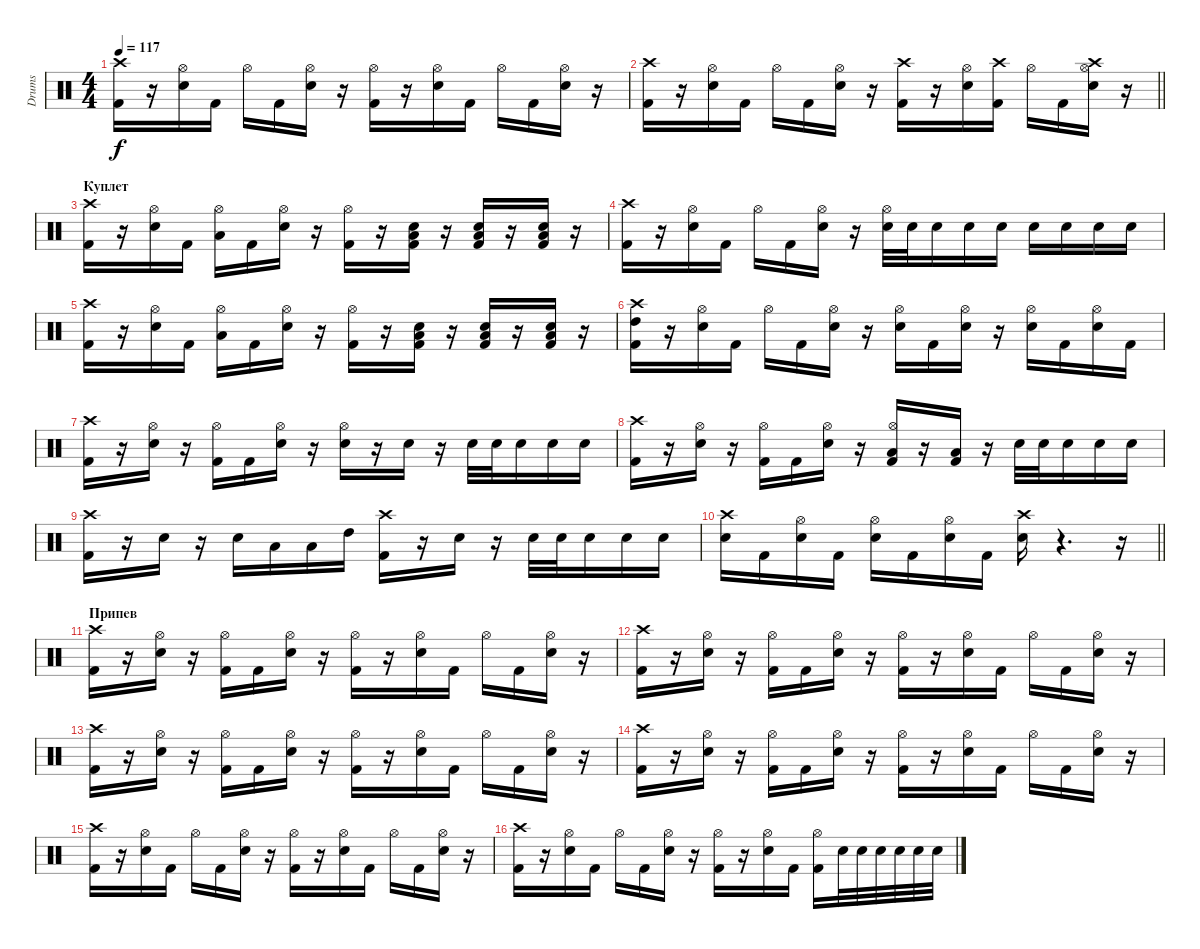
\track ("Drums" "Drums") {instrument percussion}
\staff {score}
\articulation defaults
\ts (4 4)
\tempo 117
\clef neutral
\ks c
("Kick (hit) 2" "Crash high (hit)").16{dy f} r.16 ("Snare (hit) 2" "Hi-Hat (open)").16 "Kick (hit) 2".16 "Hi-Hat (open)".16 "Kick (hit) 2".16 ("Snare (hit) 2" "Hi-Hat (open)").16 r.16 ("Kick (hit) 2" "Hi-Hat (open)").16 r.16 ("Snare (hit) 2" "Hi-Hat (open)").16 "Kick (hit) 2".16 "Hi-Hat (open)".16 "Kick (hit) 2".16 ("Snare (hit) 2" "Hi-Hat (open)").16 r.16 |
\barLineRight lightlight
("Kick (hit) 2" "Crash high (hit)").16 r.16 ("Snare (hit) 2" "Hi-Hat (open)").16 "Kick (hit) 2".16 "Hi-Hat (open)".16 "Kick (hit) 2".16 ("Snare (hit) 2" "Hi-Hat (open)").16 r.16 ("Kick (hit) 2" "Crash high (hit)").16 r.16 ("Snare (hit) 2" "Hi-Hat (open)").16 ("Kick (hit) 2" "Crash high (hit)").16 "Hi-Hat (open)".16 "Kick (hit) 2".16 ("Snare (hit) 2" "Hi-Hat (open)" "Crash high (hit)").16 r.16 |
\section ("" "Куплет")
("Kick (hit) 2" "Crash high (hit)").16 r.16 ("Snare (hit) 2" "Hi-Hat (open)").16 "Kick (hit) 2".16 ("Low Floor Tom (hit)" "Hi-Hat (open)").16 "Kick (hit) 2".16 ("Snare (hit) 2" "Hi-Hat (open)").16 r.16 ("Kick (hit) 2" "Hi-Hat (open)").16 r.16 ("Kick (hit) 2" "Snare (hit) 2" "Low Floor Tom (hit)").16 r.16 ("Kick (hit) 2" "Snare (hit) 2" "Low Floor Tom (hit)").16 r.16 ("Kick (hit) 2" "Snare (hit) 2" "Low Floor Tom (hit)").16 r.16 |
("Crash high (hit)" "Kick (hit) 2").16 r.16 ("Hi-Hat (open)" "Snare (hit) 2").16 "Kick (hit) 2".16 "Hi-Hat (open)".16 "Kick (hit) 2".16 ("Hi-Hat (open)" "Snare (hit) 2").16 r.16 ("Snare (hit) 2" "Hi-Hat (open)").32 "Snare (hit) 2".32 "Snare (hit) 2".16 "Snare (hit) 2".16 "Snare (hit) 2".16 "Snare (hit) 2".16 "Snare (hit) 2".16 "Snare (hit) 2".16 "Snare (hit) 2".16 |
("Kick (hit) 2" "Crash high (hit)").16 r.16 ("Hi-Hat (open)" "Snare (hit) 2").16 "Kick (hit) 2".16 ("Hi-Hat (open)" "Low Floor Tom (hit)").16 "Kick (hit) 2".16 ("Hi-Hat (open)" "Snare (hit) 2").16 r.16 ("Hi-Hat (open)" "Kick (hit) 2").16 r.16 ("Kick (hit) 2" "Snare (hit) 2" "Low Floor Tom (hit)").16 r.16 ("Kick (hit) 2" "Snare (hit) 2" "Low Floor Tom (hit)").16 r.16 ("Kick (hit) 2" "Snare (hit) 2" "Low Floor Tom (hit)").16 r.16 |
("Kick (hit) 2" "High Tom (hit)" "Crash high (hit)").16 r.16 ("Snare (hit) 2" "Hi-Hat (open)").16 "Kick (hit) 2".16 "Hi-Hat (open)".16 "Kick (hit) 2".16 ("Snare (hit) 2" "Hi-Hat (open)").16 r.16 ("Snare (hit) 2" "Hi-Hat (open)").16 "Kick (hit) 2".16 ("Hi-Hat (open)" "Snare (hit) 2").16 r.16 ("Hi-Hat (open)" "Snare (hit) 2").16 "Kick (hit) 2".16 ("Hi-Hat (open)" "Snare (hit) 2").16 "Kick (hit) 2".16 |
("Crash high (hit)" "Kick (hit) 2").16 r.16 ("Snare (hit) 2" "Hi-Hat (open)").16 r.16 ("Kick (hit) 2" "Hi-Hat (open)").16 "Kick (hit) 2".16 ("Snare (hit) 2" "Hi-Hat (open)").16 r.16 ("Snare (hit) 2" "Hi-Hat (open)").16 r.16 "Snare (hit) 2".16 r.16 "Snare (hit) 2".32 "Snare (hit) 2".32 "Snare (hit) 2".16 "Snare (hit) 2".16 "Snare (hit) 2".16 |
("Crash high (hit)" "Kick (hit) 2").16 r.16 ("Hi-Hat (open)" "Snare (hit) 2").16 r.16 ("Hi-Hat (open)" "Kick (hit) 2").16 "Kick (hit) 2".16 ("Hi-Hat (open)" "Snare (hit) 2").16 r.16 ("Hi-Hat (open)" "Kick (hit) 2" "Low Floor Tom (hit)").16 r.16 ("Kick (hit) 2" "Low Floor Tom (hit)").16 r.16 "Snare (hit) 2".32 "Snare (hit) 2".32 "Snare (hit) 2".16 "Snare (hit) 2".16 "Snare (hit) 2".16 |
("Kick (hit) 2" "Crash high (hit)").16 r.16 "Snare (hit) 2".16 r.16 "Snare (hit) 2".16 "Low Floor Tom (hit)".16 "Low Tom (hit)".16 "High Tom (hit)".16 ("Kick (hit) 2" "Crash high (hit)").16 r.16 "Snare (hit) 2".16 r.16 "Snare (hit) 2".32 "Snare (hit) 2".32 "Snare (hit) 2".16 "Snare (hit) 2".16 "Snare (hit) 2".16 |
\barLineRight lightlight
("Snare (hit) 2" "Crash high (hit)").16 "Kick (hit) 2".16 ("Snare (hit) 2" "Hi-Hat (open)").16 "Kick (hit) 2".16 ("Snare (hit) 2" "Hi-Hat (open)").16 "Kick (hit) 2".16 ("Snare (hit) 2" "Hi-Hat (open)").16 "Kick (hit) 2".16 ("Snare (hit) 2" "Crash high (hit)").16 r.4{d} r.16 |
\section ("" "Припев")
("Kick (hit) 2" "Crash high (hit)").16 r.16 ("Snare (hit) 2" "Hi-Hat (open)").16 r.16 ("Kick (hit) 2" "Hi-Hat (open)").16 "Kick (hit) 2".16 ("Snare (hit) 2" "Hi-Hat (open)").16 r.16 ("Kick (hit) 2" "Hi-Hat (open)").16 r.16 ("Snare (hit) 2" "Hi-Hat (open)").16 "Kick (hit) 2".16 "Hi-Hat (open)".16 "Kick (hit) 2".16 ("Snare (hit) 2" "Hi-Hat (open)").16 r.16 |
("Kick (hit) 2" "Crash high (hit)").16 r.16 ("Snare (hit) 2" "Hi-Hat (open)").16 r.16 ("Kick (hit) 2" "Hi-Hat (open)").16 "Kick (hit) 2".16 ("Snare (hit) 2" "Hi-Hat (open)").16 r.16 ("Kick (hit) 2" "Hi-Hat (open)").16 r.16 ("Snare (hit) 2" "Hi-Hat (open)").16 "Kick (hit) 2".16 "Hi-Hat (open)".16 "Kick (hit) 2".16 ("Snare (hit) 2" "Hi-Hat (open)").16 r.16 |
("Kick (hit) 2" "Crash high (hit)").16 r.16 ("Snare (hit) 2" "Hi-Hat (open)").16 r.16 ("Kick (hit) 2" "Hi-Hat (open)").16 "Kick (hit) 2".16 ("Snare (hit) 2" "Hi-Hat (open)").16 r.16 ("Kick (hit) 2" "Hi-Hat (open)").16 r.16 ("Snare (hit) 2" "Hi-Hat (open)").16 "Kick (hit) 2".16 "Hi-Hat (open)".16 "Kick (hit) 2".16 ("Snare (hit) 2" "Hi-Hat (open)").16 r.16 |
("Kick (hit) 2" "Crash high (hit)").16 r.16 ("Snare (hit) 2" "Hi-Hat (open)").16 r.16 ("Kick (hit) 2" "Hi-Hat (open)").16 "Kick (hit) 2".16 ("Snare (hit) 2" "Hi-Hat (open)").16 r.16 ("Kick (hit) 2" "Hi-Hat (open)").16 r.16 ("Snare (hit) 2" "Hi-Hat (open)").16 "Kick (hit) 2".16 "Hi-Hat (open)".16 "Kick (hit) 2".16 ("Snare (hit) 2" "Hi-Hat (open)").16 r.16 |
("Kick (hit) 2" "Crash high (hit)").16 r.16 ("Snare (hit) 2" "Hi-Hat (open)").16 "Kick (hit) 2".16 "Hi-Hat (open)".16 "Kick (hit) 2".16 ("Snare (hit) 2" "Hi-Hat (open)").16 r.16 ("Kick (hit) 2" "Hi-Hat (open)").16 r.16 ("Snare (hit) 2" "Hi-Hat (open)").16 "Kick (hit) 2".16 "Hi-Hat (open)".16 "Kick (hit) 2".16 ("Snare (hit) 2" "Hi-Hat (open)").16 r.16 |
("Kick (hit) 2" "Crash high (hit)").16 r.16 ("Snare (hit) 2" "Hi-Hat (open)").16 "Kick (hit) 2".16 "Hi-Hat (open)".16 "Kick (hit) 2".16 ("Snare (hit) 2" "Hi-Hat (open)").16 r.16 ("Kick (hit) 2" "Hi-Hat (open)").16 r.16 ("Snare (hit) 2" "Hi-Hat (open)").16 "Kick (hit) 2".16 ("Hi-Hat (open)" "Kick (hit) 2").16 "Snare (hit) 2".32 "Snare (hit) 2".32 "Snare (hit) 2".32 "Snare (hit) 2".32 "Snare (hit) 2".32 "Snare (hit) 2".32
